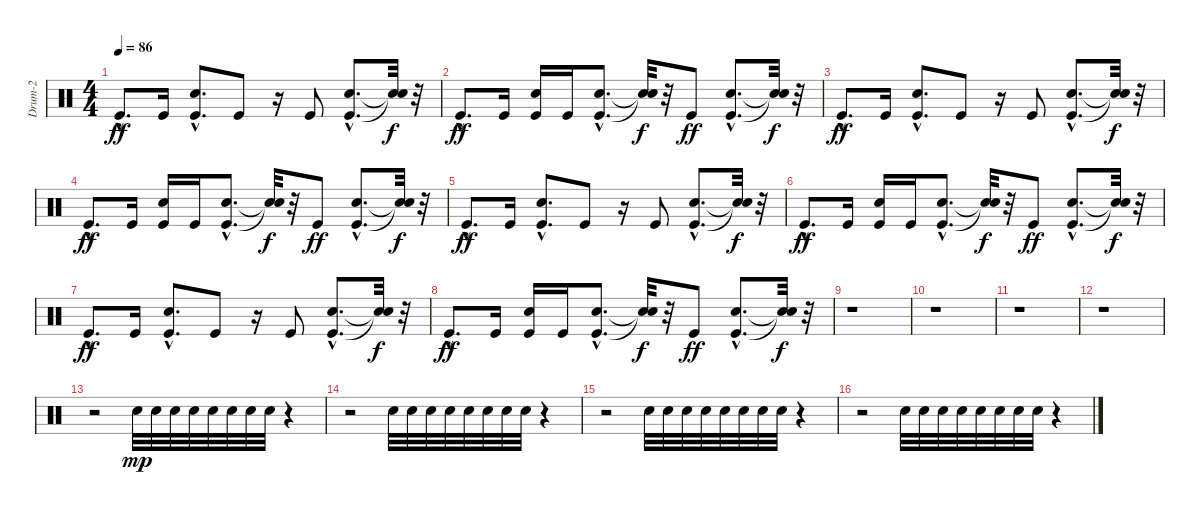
\track ("Drum-2" "Drum-2") {instrument percussion}
\staff {score}
\articulation defaults
\ts (4 4)
\tempo 86
\clef neutral
\ks c "Kick (hit)"{hac}.8{d dy ff} "Kick (hit)".16
("Kick (hit)"{hac} "Electric Snare (hit)"{hac}).8{d} "Kick (hit)".8 r.16 "Kick (hit)".8 ("Kick (hit)"{hac} "Electric Snare (hit)"{hac}).8{d} ("Snare (hit)"{t} "Snare (hit)"{t}).32{dy f} r.32 |
"Kick (hit)"{hac}.8{d dy ff} "Kick (hit)".16 ("Kick (hit)" "Electric Snare (hit)").16 "Kick (hit)".16 ("Kick (hit)"{hac} "Electric Snare (hit)"{hac}).8{d} ("Snare (hit)"{t} "Snare (hit)"{t}).32{dy f} r.32 "Kick (hit)".8{dy ff} ("Kick (hit)"{hac} "Electric Snare (hit)"{hac}).8{d} ("Snare (hit)"{t} "Snare (hit)"{t}).32{dy f} r.32 |
"Kick (hit)"{hac}.8{d dy ff} "Kick (hit)".16 ("Kick (hit)"{hac} "Electric Snare (hit)"{hac}).8{d} "Kick (hit)".8 r.16 "Kick (hit)".8 ("Kick (hit)"{hac} "Electric Snare (hit)"{hac}).8{d} ("Snare (hit)"{t} "Snare (hit)"{t}).32{dy f} r.32 |
"Kick (hit)"{hac}.8{d dy ff} "Kick (hit)".16 ("Kick (hit)" "Electric Snare (hit)").16 "Kick (hit)".16 ("Kick (hit)"{hac} "Electric Snare (hit)"{hac}).8{d} ("Snare (hit)"{t} "Snare (hit)"{t}).32{dy f} r.32 "Kick (hit)".8{dy ff} ("Kick (hit)"{hac} "Electric Snare (hit)"{hac}).8{d} ("Snare (hit)"{t} "Snare (hit)"{t}).32{dy f} r.32 |
"Kick (hit)"{hac}.8{d dy ff} "Kick (hit)".16 ("Kick (hit)"{hac} "Electric Snare (hit)"{hac}).8{d} "Kick (hit)".8 r.16 "Kick (hit)".8 ("Kick (hit)"{hac} "Electric Snare (hit)"{hac}).8{d} ("Snare (hit)"{t} "Snare (hit)"{t}).32{dy f} r.32 |
"Kick (hit)"{hac}.8{d dy ff} "Kick (hit)".16 ("Kick (hit)" "Electric Snare (hit)").16 "Kick (hit)".16 ("Kick (hit)"{hac} "Electric Snare (hit)"{hac}).8{d} ("Snare (hit)"{t} "Snare (hit)"{t}).32{dy f} r.32 "Kick (hit)".8{dy ff} ("Kick (hit)"{hac} "Electric Snare (hit)"{hac}).8{d} ("Snare (hit)"{t} "Snare (hit)"{t}).32{dy f} r.32 |
"Kick (hit)"{hac}.8{d dy ff} "Kick (hit)".16 ("Kick (hit)"{hac} "Electric Snare (hit)"{hac}).8{d} "Kick (hit)".8 r.16 "Kick (hit)".8 ("Kick (hit)"{hac} "Electric Snare (hit)"{hac}).8{d} ("Snare (hit)"{t} "Snare (hit)"{t}).32{dy f} r.32 |
"Kick (hit)"{hac}.8{d dy ff} "Kick (hit)".16 ("Kick (hit)" "Electric Snare (hit)").16 "Kick (hit)".16 ("Kick (hit)"{hac} "Electric Snare (hit)"{hac}).8{d} ("Snare (hit)"{t} "Snare (hit)"{t}).32{dy f} r.32 "Kick (hit)".8{dy ff} ("Kick (hit)"{hac} "Electric Snare (hit)"{hac}).8{d} ("Snare (hit)"{t} "Snare (hit)"{t}).32{dy f} r.32 |
r.1 |
r.1 |
r.1 |
r.1 |
r.2 "Electric Snare (hit)".32{dy mp} "Electric Snare (hit)".32 "Electric Snare (hit)".32 "Electric Snare (hit)".32 "Electric Snare (hit)".32 "Electric Snare (hit)".32 "Electric Snare (hit)".32 "Electric Snare (hit)".32 r.4 |
r.2 "Electric Snare (hit)".32 "Electric Snare (hit)".32 "Electric Snare (hit)".32 "Electric Snare (hit)".32 "Electric Snare (hit)".32 "Electric Snare (hit)".32 "Electric Snare (hit)".32 "Electric Snare (hit)".32 r.4 |
r.2 "Electric Snare (hit)".32 "Electric Snare (hit)".32 "Electric Snare (hit)".32 "Electric Snare (hit)".32 "Electric Snare (hit)".32 "Electric Snare (hit)".32 "Electric Snare (hit)".32 "Electric Snare (hit)".32 r.4 |
r.2 "Electric Snare (hit)".32 "Electric Snare (hit)".32 "Electric Snare (hit)".32 "Electric Snare (hit)".32 "Electric Snare (hit)".32 "Electric Snare (hit)".32 "Electric Snare (hit)".32 "Electric Snare (hit)".32 r.4
